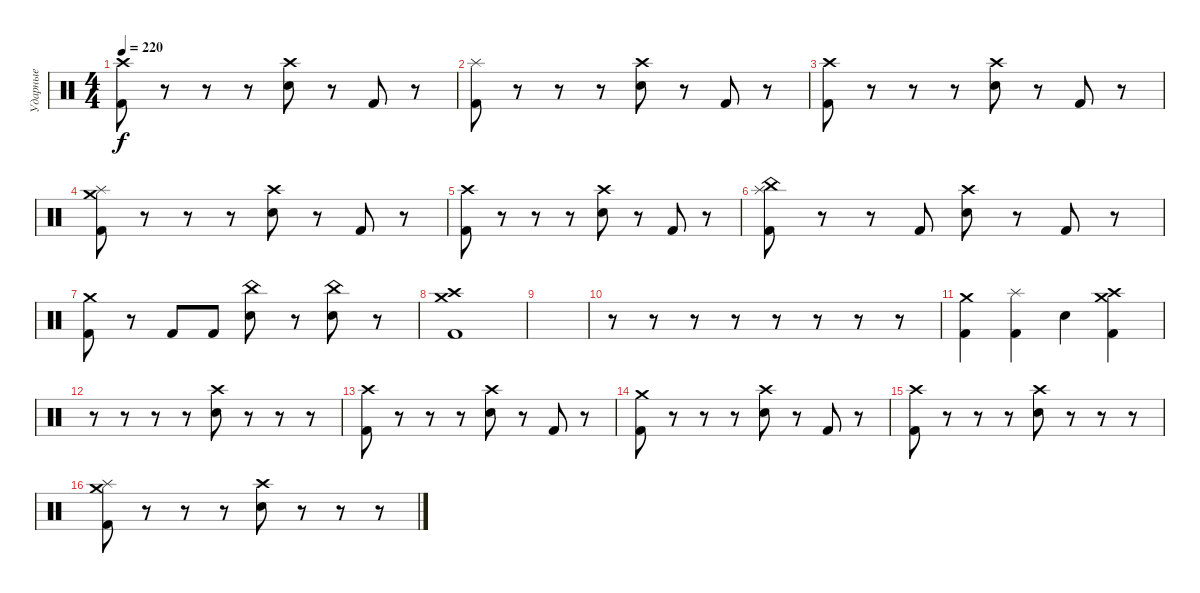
\track ("Ударные" "Ударные") {instrument percussion}
\staff {score}
\articulation defaults
\ts (4 4)
\tempo 220
\clef neutral
\ks c
("Kick (hit) 2" "Crash high (hit)").8{dy f} r.8 r.8 r.8 ("Electric Snare (hit)" "Crash high (hit)").8 r.8 "Kick (hit) 2".8 r.8 |
("Kick (hit) 2" "Splash (hit)").8 r.8 r.8 r.8 ("Electric Snare (hit)" "Crash high (hit)").8 r.8 "Kick (hit) 2".8 r.8 |
("Kick (hit) 2" "Crash high (hit)").8 r.8 r.8 r.8 ("Electric Snare (hit)" "Crash high (hit)").8 r.8 "Kick (hit) 2".8 r.8 |
("Kick (hit) 2" "Splash (hit)" "Crash medium (hit)").8 r.8 r.8 r.8 ("Electric Snare (hit)" "Crash high (hit)").8 r.8 "Kick (hit) 2".8 r.8 |
("Kick (hit) 2" "Crash high (hit)").8 r.8 r.8 r.8 ("Electric Snare (hit)" "Crash high (hit)").8 r.8 "Kick (hit) 2".8 r.8 |
("Kick (hit) 2" "China (hit)" "Splash (hit)").8 r.8 r.8 "Kick (hit) 2".8 ("Electric Snare (hit)" "Crash high (hit)").8 r.8 "Kick (hit) 2".8 r.8 |
("Kick (hit) 2" "Crash medium (hit)").8 r.8 "Kick (hit) 2".8 "Kick (hit) 2".8 ("Electric Snare (hit)" "China (hit)").8 r.8 ("Electric Snare (hit)" "China (hit)").8 r.8 |
("Kick (hit) 2" "Crash high (hit)" "Crash medium (hit)").1 |
|
r.8 r.8 r.8 r.8 r.8 r.8 r.8 r.8 |
("Kick (hit) 2" "Crash medium (hit)").4 ("Kick (hit) 2" "Splash (hit)").4 "Electric Snare (hit)".4 ("Kick (hit) 2" "Crash medium (hit)" "Crash high (hit)").4 |
r.8 r.8 r.8 r.8 ("Electric Snare (hit)" "Crash high (hit)").8 r.8 r.8 r.8 |
("Kick (hit) 2" "Crash high (hit)").8 r.8 r.8 r.8 ("Electric Snare (hit)" "Crash high (hit)").8 r.8 "Kick (hit) 2".8 r.8 |
("Kick (hit) 2" "Crash medium (hit)").8 r.8 r.8 r.8 ("Electric Snare (hit)" "Crash high (hit)").8 r.8 "Kick (hit) 2".8 r.8 |
("Kick (hit) 2" "Crash high (hit)").8 r.8 r.8 r.8 ("Electric Snare (hit)" "Crash high (hit)").8 r.8 r.8 r.8 |
("Kick (hit) 2" "Splash (hit)" "Crash medium (hit)").8 r.8 r.8 r.8 ("Electric Snare (hit)" "Crash high (hit)").8 r.8 r.8 r.8
